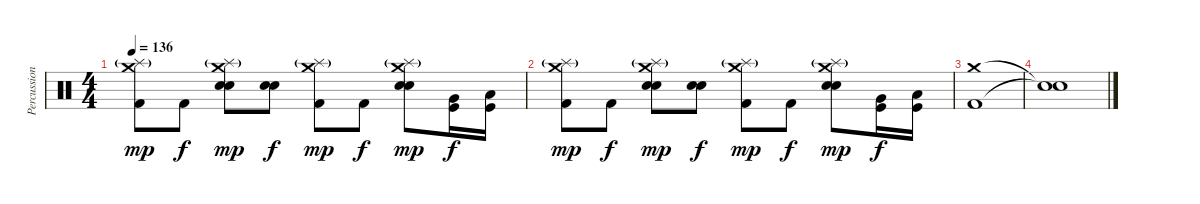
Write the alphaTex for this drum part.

\track ("Percussion" "Percussion") {instrument percussion}
\staff {score}
\articulation defaults
\ts (4 4)
\tempo 136
\clef neutral
\ks c
("Splash (hit)"{g} "Crash medium (hit)" "Kick (hit) 2").8{dy mp} "Kick (hit) 2".8{dy f} ("Splash (hit)"{g} "Crash medium (hit)" "Snare (hit) 2" "Electric Snare (hit)").8{dy mp} ("Snare (hit) 2" "Electric Snare (hit)").8{dy f} ("Splash (hit)"{g} "Crash medium (hit)" "Kick (hit) 2").8{dy mp} "Kick (hit) 2".8{dy f} ("Splash (hit)"{g} "Crash medium (hit)" "Snare (hit) 2" "Electric Snare (hit)").8{dy mp} ("Very Low Tom (hit)" "Kick (hit)").16{dy f} ("Low Floor Tom (hit)" "Kick (hit)").16 |
("Splash (hit)"{g} "Crash medium (hit)" "Kick (hit) 2").8{dy mp} "Kick (hit) 2".8{dy f} ("Splash (hit)"{g} "Crash medium (hit)" "Snare (hit) 2" "Electric Snare (hit)").8{dy mp} ("Snare (hit) 2" "Electric Snare (hit)").8{dy f} ("Splash (hit)"{g} "Crash medium (hit)" "Kick (hit) 2").8{dy mp} "Kick (hit) 2".8{dy f} ("Splash (hit)"{g} "Crash medium (hit)" "Snare (hit) 2" "Electric Snare (hit)").8{dy mp} ("Very Low Tom (hit)" "Kick (hit)").16{dy f} ("Low Floor Tom (hit)" "Kick (hit)").16 |
("Crash medium (hit)" "Kick (hit) 2").1 |
("Snare (hit)"{t} "Snare (hit)"{t}).1
